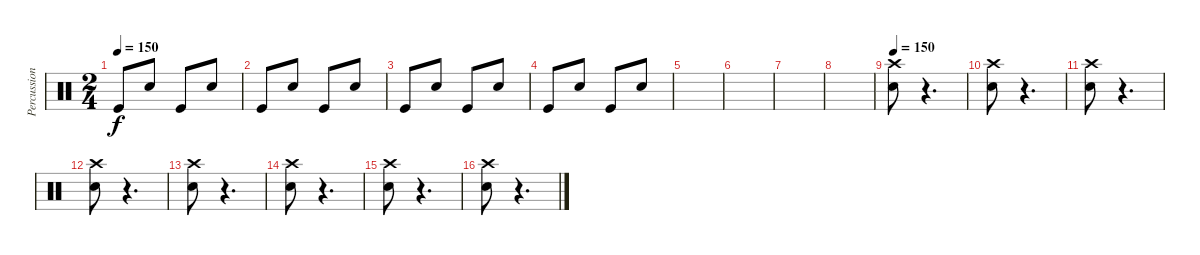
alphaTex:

\track ("Percussions" "Percussion") {instrument percussion}
\staff {score}
\articulation defaults
\ts (2 4)
\tempo 150
\clef neutral
\ks c "Kick (hit)".8{dy f} "Snare (hit) 2".8 "Kick (hit)".8 "Snare (hit) 2".8
|
"Kick (hit)".8 "Snare (hit) 2".8 "Kick (hit)".8 "Snare (hit) 2".8 |
"Kick (hit)".8 "Snare (hit) 2".8 "Kick (hit)".8 "Snare (hit) 2".8 |
"Kick (hit)".8 "Snare (hit) 2".8 "Kick (hit)".8 "Snare (hit) 2".8 |
|
|
|
|
\tempo 150
("Crash high (hit)" "Snare (hit) 2").8 r.4{d} |
("Crash high (hit)" "Snare (hit) 2").8 r.4{d} |
("Crash high (hit)" "Snare (hit) 2").8 r.4{d} |
("Crash high (hit)" "Snare (hit) 2").8 r.4{d} |
("Crash high (hit)" "Snare (hit) 2").8 r.4{d} |
("Crash high (hit)" "Snare (hit) 2").8 r.4{d} |
("Crash high (hit)" "Snare (hit) 2").8 r.4{d} |
("Crash high (hit)" "Snare (hit) 2").8 r.4{d}
